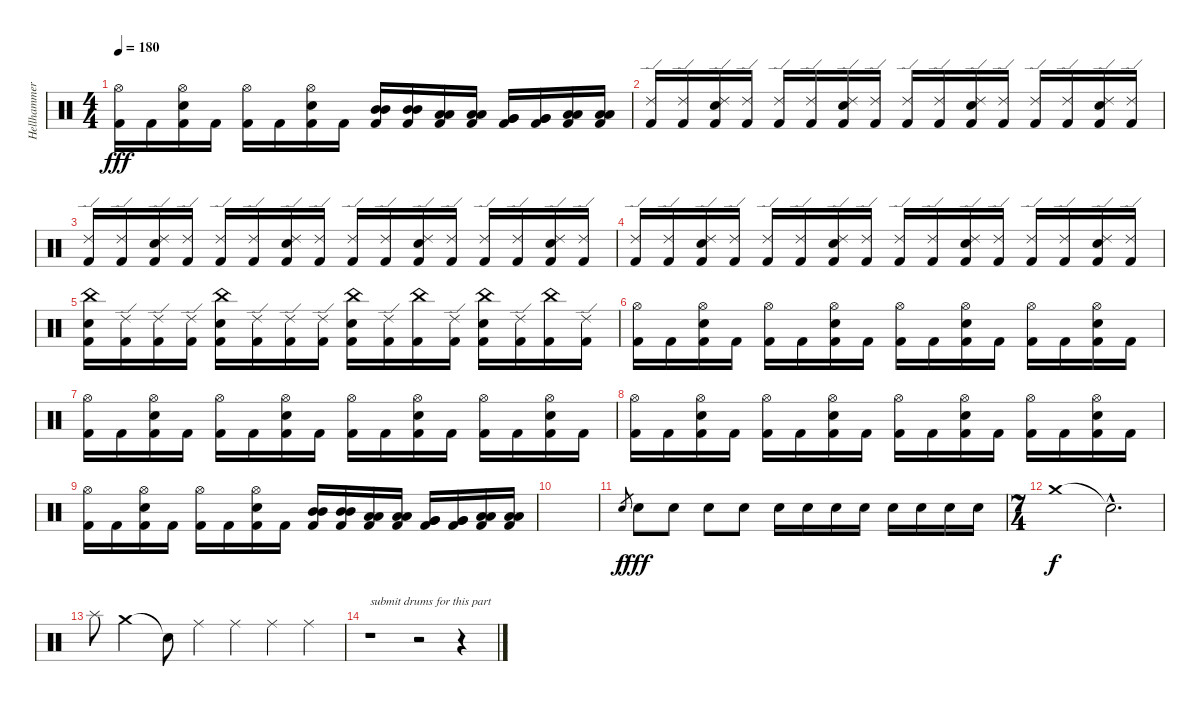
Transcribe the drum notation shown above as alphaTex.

\track ("Hellhammer (Drums)" "Hellhammer") {instrument percussion}
\staff {score}
\articulation defaults
\ts (4 4)
\tempo 180
\clef neutral
\ks c
("Hi-Hat (open)" "Kick (hit) 2").16{dy fff} "Kick (hit) 2".16 ("Hi-Hat (open)" "Electric Snare (hit)" "Kick (hit) 2").16 "Kick (hit) 2".16 ("Hi-Hat (open)" "Kick (hit) 2").16 "Kick (hit) 2".16 ("Hi-Hat (open)" "Electric Snare (hit)" "Kick (hit) 2").16 "Kick (hit) 2".16 ("Mid Tom (hit)" "Mid Tom (hit)" "Kick (hit) 2").16 ("Mid Tom (hit)" "Mid Tom (hit)" "Kick (hit) 2").16 ("Low Tom (hit)" "Low Tom (hit)" "Kick (hit) 2").16 ("Low Tom (hit)" "Low Tom (hit)" "Kick (hit) 2").16 ("Very Low Tom (hit)" "Very Low Tom (hit)" "Kick (hit) 2").16 ("Very Low Tom (hit)" "Very Low Tom (hit)" "Kick (hit) 2").16 ("Low Floor Tom (hit)" "Low Floor Tom (hit)" "Kick (hit) 2").16 ("Low Floor Tom (hit)" "Low Floor Tom (hit)" "Kick (hit) 2").16 |
("Ride (edge) 2" "Kick (hit) 2").16 ("Ride (edge) 2" "Kick (hit) 2").16 ("Ride (edge) 2" "Electric Snare (hit)" "Kick (hit) 2").16 ("Ride (edge) 2" "Kick (hit) 2").16 ("Ride (edge) 2" "Kick (hit) 2").16 ("Ride (edge) 2" "Kick (hit) 2").16 ("Ride (edge) 2" "Electric Snare (hit)" "Kick (hit) 2").16 ("Ride (edge) 2" "Kick (hit) 2").16 ("Ride (edge) 2" "Kick (hit) 2").16 ("Ride (edge) 2" "Kick (hit) 2").16 ("Ride (edge) 2" "Electric Snare (hit)" "Kick (hit) 2").16 ("Ride (edge) 2" "Kick (hit) 2").16 ("Ride (edge) 2" "Kick (hit) 2").16 ("Ride (edge) 2" "Kick (hit) 2").16 ("Ride (edge) 2" "Electric Snare (hit)" "Kick (hit) 2").16 ("Ride (edge) 2" "Kick (hit) 2").16 |
("Ride (edge) 2" "Kick (hit) 2").16 ("Ride (edge) 2" "Kick (hit) 2").16 ("Ride (edge) 2" "Electric Snare (hit)" "Kick (hit) 2").16 ("Ride (edge) 2" "Kick (hit) 2").16 ("Ride (edge) 2" "Kick (hit) 2").16 ("Ride (edge) 2" "Kick (hit) 2").16 ("Ride (edge) 2" "Electric Snare (hit)" "Kick (hit) 2").16 ("Ride (edge) 2" "Kick (hit) 2").16 ("Ride (edge) 2" "Kick (hit) 2").16 ("Ride (edge) 2" "Kick (hit) 2").16 ("Ride (edge) 2" "Electric Snare (hit)" "Kick (hit) 2").16 ("Ride (edge) 2" "Kick (hit) 2").16 ("Ride (edge) 2" "Kick (hit) 2").16 ("Ride (edge) 2" "Kick (hit) 2").16 ("Ride (edge) 2" "Electric Snare (hit)" "Kick (hit) 2").16 ("Ride (edge) 2" "Kick (hit) 2").16 |
("Ride (edge) 2" "Kick (hit) 2").16 ("Ride (edge) 2" "Kick (hit) 2").16 ("Ride (edge) 2" "Electric Snare (hit)" "Kick (hit) 2").16 ("Ride (edge) 2" "Kick (hit) 2").16 ("Ride (edge) 2" "Kick (hit) 2").16 ("Ride (edge) 2" "Kick (hit) 2").16 ("Ride (edge) 2" "Electric Snare (hit)" "Kick (hit) 2").16 ("Ride (edge) 2" "Kick (hit) 2").16 ("Ride (edge) 2" "Kick (hit) 2").16 ("Ride (edge) 2" "Kick (hit) 2").16 ("Ride (edge) 2" "Electric Snare (hit)" "Kick (hit) 2").16 ("Ride (edge) 2" "Kick (hit) 2").16 ("Ride (edge) 2" "Kick (hit) 2").16 ("Ride (edge) 2" "Kick (hit) 2").16 ("Ride (edge) 2" "Electric Snare (hit)" "Kick (hit) 2").16 ("Ride (edge) 2" "Kick (hit) 2").16 |
("China (hit)" "Electric Snare (hit)" "Kick (hit) 2").16 ("Ride (edge) 2" "Kick (hit) 2").16 ("Ride (edge) 2" "Kick (hit) 2").16 ("Ride (edge) 2" "Kick (hit) 2").16 ("China (hit)" "Electric Snare (hit)" "Kick (hit) 2").16 ("Ride (edge) 2" "Kick (hit) 2").16 ("Ride (edge) 2" "Kick (hit) 2").16 ("Ride (edge) 2" "Kick (hit) 2").16 ("China (hit)" "Electric Snare (hit)" "Kick (hit) 2").16 ("Ride (edge) 2" "Kick (hit) 2").16 ("China (hit)" "Kick (hit) 2").16 ("Ride (edge) 2" "Kick (hit) 2").16 ("China (hit)" "Electric Snare (hit)" "Kick (hit) 2").16 ("Ride (edge) 2" "Kick (hit) 2").16 ("China (hit)" "Kick (hit) 2").16 ("Ride (edge) 2" "Kick (hit) 2").16 |
("Hi-Hat (open)" "Kick (hit) 2").16 "Kick (hit) 2".16 ("Hi-Hat (open)" "Electric Snare (hit)" "Kick (hit) 2").16 "Kick (hit) 2".16 ("Hi-Hat (open)" "Kick (hit) 2").16 "Kick (hit) 2".16 ("Hi-Hat (open)" "Electric Snare (hit)" "Kick (hit) 2").16 "Kick (hit) 2".16 ("Hi-Hat (open)" "Kick (hit) 2").16 "Kick (hit) 2".16 ("Hi-Hat (open)" "Electric Snare (hit)" "Kick (hit) 2").16 "Kick (hit) 2".16 ("Hi-Hat (open)" "Kick (hit) 2").16 "Kick (hit) 2".16 ("Hi-Hat (open)" "Electric Snare (hit)" "Kick (hit) 2").16 "Kick (hit) 2".16 |
("Hi-Hat (open)" "Kick (hit) 2").16 "Kick (hit) 2".16 ("Hi-Hat (open)" "Electric Snare (hit)" "Kick (hit) 2").16 "Kick (hit) 2".16 ("Hi-Hat (open)" "Kick (hit) 2").16 "Kick (hit) 2".16 ("Hi-Hat (open)" "Electric Snare (hit)" "Kick (hit) 2").16 "Kick (hit) 2".16 ("Hi-Hat (open)" "Kick (hit) 2").16 "Kick (hit) 2".16 ("Hi-Hat (open)" "Electric Snare (hit)" "Kick (hit) 2").16 "Kick (hit) 2".16 ("Hi-Hat (open)" "Kick (hit) 2").16 "Kick (hit) 2".16 ("Hi-Hat (open)" "Electric Snare (hit)" "Kick (hit) 2").16 "Kick (hit) 2".16 |
("Hi-Hat (open)" "Kick (hit) 2").16 "Kick (hit) 2".16 ("Hi-Hat (open)" "Electric Snare (hit)" "Kick (hit) 2").16 "Kick (hit) 2".16 ("Hi-Hat (open)" "Kick (hit) 2").16 "Kick (hit) 2".16 ("Hi-Hat (open)" "Electric Snare (hit)" "Kick (hit) 2").16 "Kick (hit) 2".16 ("Hi-Hat (open)" "Kick (hit) 2").16 "Kick (hit) 2".16 ("Hi-Hat (open)" "Electric Snare (hit)" "Kick (hit) 2").16 "Kick (hit) 2".16 ("Hi-Hat (open)" "Kick (hit) 2").16 "Kick (hit) 2".16 ("Hi-Hat (open)" "Electric Snare (hit)" "Kick (hit) 2").16 "Kick (hit) 2".16 |
("Hi-Hat (open)" "Kick (hit) 2").16 "Kick (hit) 2".16 ("Hi-Hat (open)" "Electric Snare (hit)" "Kick (hit) 2").16 "Kick (hit) 2".16 ("Hi-Hat (open)" "Kick (hit) 2").16 "Kick (hit) 2".16 ("Hi-Hat (open)" "Electric Snare (hit)" "Kick (hit) 2").16 "Kick (hit) 2".16 ("Mid Tom (hit)" "Mid Tom (hit)" "Kick (hit) 2").16 ("Mid Tom (hit)" "Mid Tom (hit)" "Kick (hit) 2").16 ("Low Tom (hit)" "Low Tom (hit)" "Kick (hit) 2").16 ("Low Tom (hit)" "Low Tom (hit)" "Kick (hit) 2").16 ("Very Low Tom (hit)" "Very Low Tom (hit)" "Kick (hit) 2").16 ("Very Low Tom (hit)" "Very Low Tom (hit)" "Kick (hit) 2").16 ("Low Floor Tom (hit)" "Low Floor Tom (hit)" "Kick (hit) 2").16 ("Low Floor Tom (hit)" "Low Floor Tom (hit)" "Kick (hit) 2").16 |
|
"Electric Snare (hit)".8{gr dy f} "Electric Snare (hit)".8{dy fff} "Electric Snare (hit)".8 "Electric Snare (hit)".8 "Electric Snare (hit)".8 "Electric Snare (hit)".16 "Electric Snare (hit)".16 "Electric Snare (hit)".16 "Electric Snare (hit)".16 "Electric Snare (hit)".16 "Electric Snare (hit)".16 "Electric Snare (hit)".16 "Electric Snare (hit)".16 |
\ts (7 4)
"Crash medium (hit)".1{dy f} "Snare (hit)"{hac t}.2{d} |
"Splash (hit)".8 "Crash medium (hit)".2 "Snare (hit)"{t}.8 "Ride (middle)".4 "Ride (middle)".4 "Ride (middle)".4 "Ride (middle)".4 |
r.1{txt "submit drums for this part"} r.2 r.4
